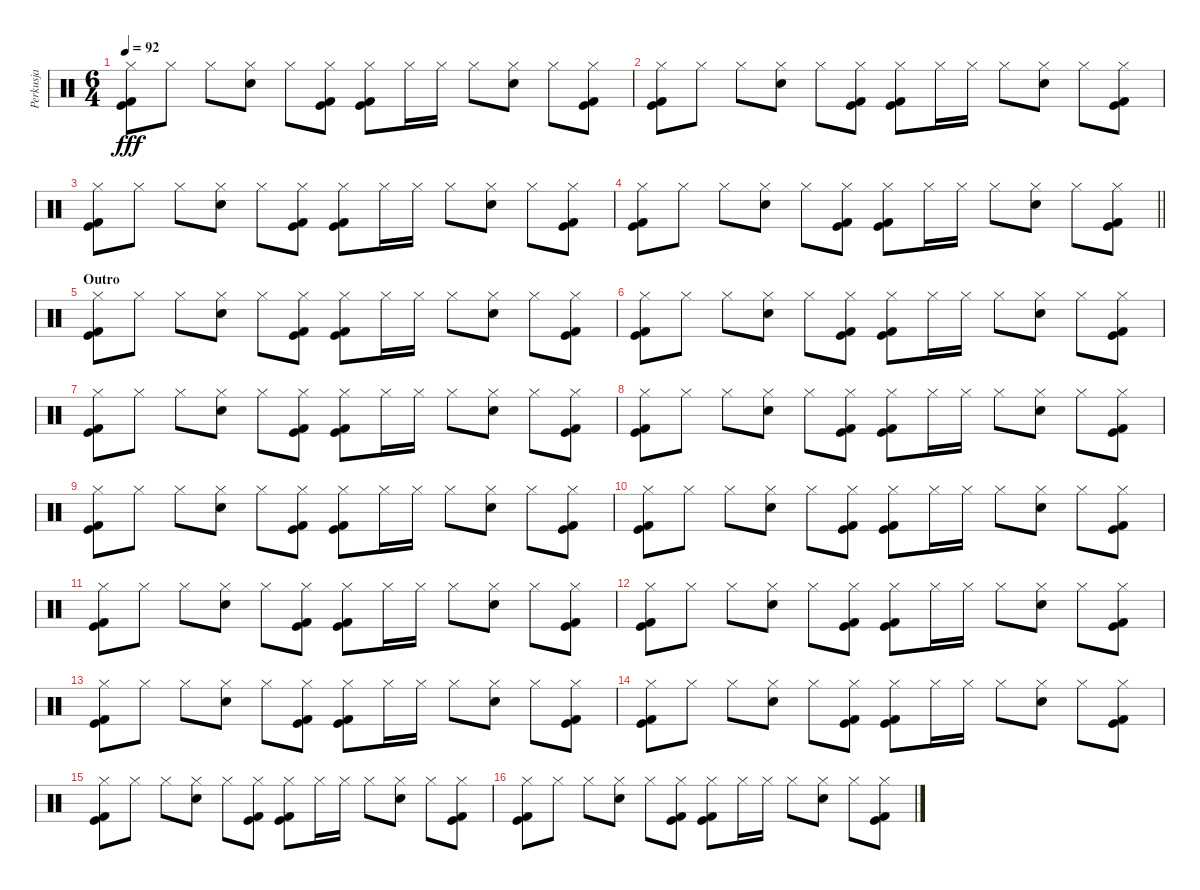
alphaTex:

\track ("Perkusja" "Perkusja") {instrument percussion}
\staff {score}
\articulation defaults
\ts (6 4)
\tempo 92
\clef neutral
\ks c
("Hi-Hat (closed)" "Kick (hit)" "Kick (hit) 2").8{dy fff} "Hi-Hat (closed)".8 "Hi-Hat (closed)".8 ("Hi-Hat (closed)" "Electric Snare (hit)").8 "Hi-Hat (closed)".8 ("Hi-Hat (closed)" "Kick (hit)" "Kick (hit) 2").8 ("Hi-Hat (closed)" "Kick (hit)" "Kick (hit) 2").8 "Hi-Hat (closed)".16 "Hi-Hat (closed)".16 "Hi-Hat (closed)".8 ("Hi-Hat (closed)" "Electric Snare (hit)").8 "Hi-Hat (closed)".8 ("Hi-Hat (closed)" "Kick (hit)" "Kick (hit) 2").8 |
("Hi-Hat (closed)" "Kick (hit)" "Kick (hit) 2").8 "Hi-Hat (closed)".8 "Hi-Hat (closed)".8 ("Hi-Hat (closed)" "Electric Snare (hit)").8 "Hi-Hat (closed)".8 ("Hi-Hat (closed)" "Kick (hit)" "Kick (hit) 2").8 ("Hi-Hat (closed)" "Kick (hit)" "Kick (hit) 2").8 "Hi-Hat (closed)".16 "Hi-Hat (closed)".16 "Hi-Hat (closed)".8 ("Hi-Hat (closed)" "Electric Snare (hit)").8 "Hi-Hat (closed)".8 ("Hi-Hat (closed)" "Kick (hit)" "Kick (hit) 2").8 |
("Hi-Hat (closed)" "Kick (hit)" "Kick (hit) 2").8 "Hi-Hat (closed)".8 "Hi-Hat (closed)".8 ("Hi-Hat (closed)" "Electric Snare (hit)").8 "Hi-Hat (closed)".8 ("Hi-Hat (closed)" "Kick (hit)" "Kick (hit) 2").8 ("Hi-Hat (closed)" "Kick (hit)" "Kick (hit) 2").8 "Hi-Hat (closed)".16 "Hi-Hat (closed)".16 "Hi-Hat (closed)".8 ("Hi-Hat (closed)" "Electric Snare (hit)").8 "Hi-Hat (closed)".8 ("Hi-Hat (closed)" "Kick (hit)" "Kick (hit) 2").8 |
\barLineRight lightlight
("Hi-Hat (closed)" "Kick (hit)" "Kick (hit) 2").8 "Hi-Hat (closed)".8 "Hi-Hat (closed)".8 ("Hi-Hat (closed)" "Electric Snare (hit)").8 "Hi-Hat (closed)".8 ("Hi-Hat (closed)" "Kick (hit)" "Kick (hit) 2").8 ("Hi-Hat (closed)" "Kick (hit)" "Kick (hit) 2").8 "Hi-Hat (closed)".16 "Hi-Hat (closed)".16 "Hi-Hat (closed)".8 ("Hi-Hat (closed)" "Electric Snare (hit)").8 "Hi-Hat (closed)".8 ("Hi-Hat (closed)" "Kick (hit)" "Kick (hit) 2").8 |
\section ("" "Outro")
("Hi-Hat (closed)" "Kick (hit)" "Kick (hit) 2").8 "Hi-Hat (closed)".8 "Hi-Hat (closed)".8 ("Hi-Hat (closed)" "Electric Snare (hit)").8 "Hi-Hat (closed)".8 ("Hi-Hat (closed)" "Kick (hit)" "Kick (hit) 2").8 ("Hi-Hat (closed)" "Kick (hit)" "Kick (hit) 2").8 "Hi-Hat (closed)".16 "Hi-Hat (closed)".16 "Hi-Hat (closed)".8 ("Hi-Hat (closed)" "Electric Snare (hit)").8 "Hi-Hat (closed)".8 ("Hi-Hat (closed)" "Kick (hit)" "Kick (hit) 2").8 |
("Hi-Hat (closed)" "Kick (hit)" "Kick (hit) 2").8 "Hi-Hat (closed)".8 "Hi-Hat (closed)".8 ("Hi-Hat (closed)" "Electric Snare (hit)").8 "Hi-Hat (closed)".8 ("Hi-Hat (closed)" "Kick (hit)" "Kick (hit) 2").8 ("Hi-Hat (closed)" "Kick (hit)" "Kick (hit) 2").8 "Hi-Hat (closed)".16 "Hi-Hat (closed)".16 "Hi-Hat (closed)".8 ("Hi-Hat (closed)" "Electric Snare (hit)").8 "Hi-Hat (closed)".8 ("Hi-Hat (closed)" "Kick (hit)" "Kick (hit) 2").8 |
("Hi-Hat (closed)" "Kick (hit)" "Kick (hit) 2").8 "Hi-Hat (closed)".8 "Hi-Hat (closed)".8 ("Hi-Hat (closed)" "Electric Snare (hit)").8 "Hi-Hat (closed)".8 ("Hi-Hat (closed)" "Kick (hit)" "Kick (hit) 2").8 ("Hi-Hat (closed)" "Kick (hit)" "Kick (hit) 2").8 "Hi-Hat (closed)".16 "Hi-Hat (closed)".16 "Hi-Hat (closed)".8 ("Hi-Hat (closed)" "Electric Snare (hit)").8 "Hi-Hat (closed)".8 ("Hi-Hat (closed)" "Kick (hit)" "Kick (hit) 2").8 |
("Hi-Hat (closed)" "Kick (hit)" "Kick (hit) 2").8 "Hi-Hat (closed)".8 "Hi-Hat (closed)".8 ("Hi-Hat (closed)" "Electric Snare (hit)").8 "Hi-Hat (closed)".8 ("Hi-Hat (closed)" "Kick (hit)" "Kick (hit) 2").8 ("Hi-Hat (closed)" "Kick (hit)" "Kick (hit) 2").8 "Hi-Hat (closed)".16 "Hi-Hat (closed)".16 "Hi-Hat (closed)".8 ("Hi-Hat (closed)" "Electric Snare (hit)").8 "Hi-Hat (closed)".8 ("Hi-Hat (closed)" "Kick (hit)" "Kick (hit) 2").8 |
("Hi-Hat (closed)" "Kick (hit)" "Kick (hit) 2").8 "Hi-Hat (closed)".8 "Hi-Hat (closed)".8 ("Hi-Hat (closed)" "Electric Snare (hit)").8 "Hi-Hat (closed)".8 ("Hi-Hat (closed)" "Kick (hit)" "Kick (hit) 2").8 ("Hi-Hat (closed)" "Kick (hit)" "Kick (hit) 2").8 "Hi-Hat (closed)".16 "Hi-Hat (closed)".16 "Hi-Hat (closed)".8 ("Hi-Hat (closed)" "Electric Snare (hit)").8 "Hi-Hat (closed)".8 ("Hi-Hat (closed)" "Kick (hit)" "Kick (hit) 2").8 |
("Hi-Hat (closed)" "Kick (hit)" "Kick (hit) 2").8 "Hi-Hat (closed)".8 "Hi-Hat (closed)".8 ("Hi-Hat (closed)" "Electric Snare (hit)").8 "Hi-Hat (closed)".8 ("Hi-Hat (closed)" "Kick (hit)" "Kick (hit) 2").8 ("Hi-Hat (closed)" "Kick (hit)" "Kick (hit) 2").8 "Hi-Hat (closed)".16 "Hi-Hat (closed)".16 "Hi-Hat (closed)".8 ("Hi-Hat (closed)" "Electric Snare (hit)").8 "Hi-Hat (closed)".8 ("Hi-Hat (closed)" "Kick (hit)" "Kick (hit) 2").8 |
("Hi-Hat (closed)" "Kick (hit)" "Kick (hit) 2").8 "Hi-Hat (closed)".8 "Hi-Hat (closed)".8 ("Hi-Hat (closed)" "Electric Snare (hit)").8 "Hi-Hat (closed)".8 ("Hi-Hat (closed)" "Kick (hit)" "Kick (hit) 2").8 ("Hi-Hat (closed)" "Kick (hit)" "Kick (hit) 2").8 "Hi-Hat (closed)".16 "Hi-Hat (closed)".16 "Hi-Hat (closed)".8 ("Hi-Hat (closed)" "Electric Snare (hit)").8 "Hi-Hat (closed)".8 ("Hi-Hat (closed)" "Kick (hit)" "Kick (hit) 2").8 |
("Hi-Hat (closed)" "Kick (hit)" "Kick (hit) 2").8 "Hi-Hat (closed)".8 "Hi-Hat (closed)".8 ("Hi-Hat (closed)" "Electric Snare (hit)").8 "Hi-Hat (closed)".8 ("Hi-Hat (closed)" "Kick (hit)" "Kick (hit) 2").8 ("Hi-Hat (closed)" "Kick (hit)" "Kick (hit) 2").8 "Hi-Hat (closed)".16 "Hi-Hat (closed)".16 "Hi-Hat (closed)".8 ("Hi-Hat (closed)" "Electric Snare (hit)").8 "Hi-Hat (closed)".8 ("Hi-Hat (closed)" "Kick (hit)" "Kick (hit) 2").8 |
("Hi-Hat (closed)" "Kick (hit)" "Kick (hit) 2").8 "Hi-Hat (closed)".8 "Hi-Hat (closed)".8 ("Hi-Hat (closed)" "Electric Snare (hit)").8 "Hi-Hat (closed)".8 ("Hi-Hat (closed)" "Kick (hit)" "Kick (hit) 2").8 ("Hi-Hat (closed)" "Kick (hit)" "Kick (hit) 2").8 "Hi-Hat (closed)".16 "Hi-Hat (closed)".16 "Hi-Hat (closed)".8 ("Hi-Hat (closed)" "Electric Snare (hit)").8 "Hi-Hat (closed)".8 ("Hi-Hat (closed)" "Kick (hit)" "Kick (hit) 2").8 |
("Hi-Hat (closed)" "Kick (hit)" "Kick (hit) 2").8 "Hi-Hat (closed)".8 "Hi-Hat (closed)".8 ("Hi-Hat (closed)" "Electric Snare (hit)").8 "Hi-Hat (closed)".8 ("Hi-Hat (closed)" "Kick (hit)" "Kick (hit) 2").8 ("Hi-Hat (closed)" "Kick (hit)" "Kick (hit) 2").8 "Hi-Hat (closed)".16 "Hi-Hat (closed)".16 "Hi-Hat (closed)".8 ("Hi-Hat (closed)" "Electric Snare (hit)").8 "Hi-Hat (closed)".8 ("Hi-Hat (closed)" "Kick (hit)" "Kick (hit) 2").8 |
("Hi-Hat (closed)" "Kick (hit)" "Kick (hit) 2").8 "Hi-Hat (closed)".8 "Hi-Hat (closed)".8 ("Hi-Hat (closed)" "Electric Snare (hit)").8 "Hi-Hat (closed)".8 ("Hi-Hat (closed)" "Kick (hit)" "Kick (hit) 2").8 ("Hi-Hat (closed)" "Kick (hit)" "Kick (hit) 2").8 "Hi-Hat (closed)".16 "Hi-Hat (closed)".16 "Hi-Hat (closed)".8 ("Hi-Hat (closed)" "Electric Snare (hit)").8 "Hi-Hat (closed)".8 ("Hi-Hat (closed)" "Kick (hit)" "Kick (hit) 2").8 |
("Hi-Hat (closed)" "Kick (hit)" "Kick (hit) 2").8 "Hi-Hat (closed)".8 "Hi-Hat (closed)".8 ("Hi-Hat (closed)" "Electric Snare (hit)").8 "Hi-Hat (closed)".8 ("Hi-Hat (closed)" "Kick (hit)" "Kick (hit) 2").8 ("Hi-Hat (closed)" "Kick (hit)" "Kick (hit) 2").8 "Hi-Hat (closed)".16 "Hi-Hat (closed)".16 "Hi-Hat (closed)".8 ("Hi-Hat (closed)" "Electric Snare (hit)").8 "Hi-Hat (closed)".8 ("Hi-Hat (closed)" "Kick (hit)" "Kick (hit) 2").8
